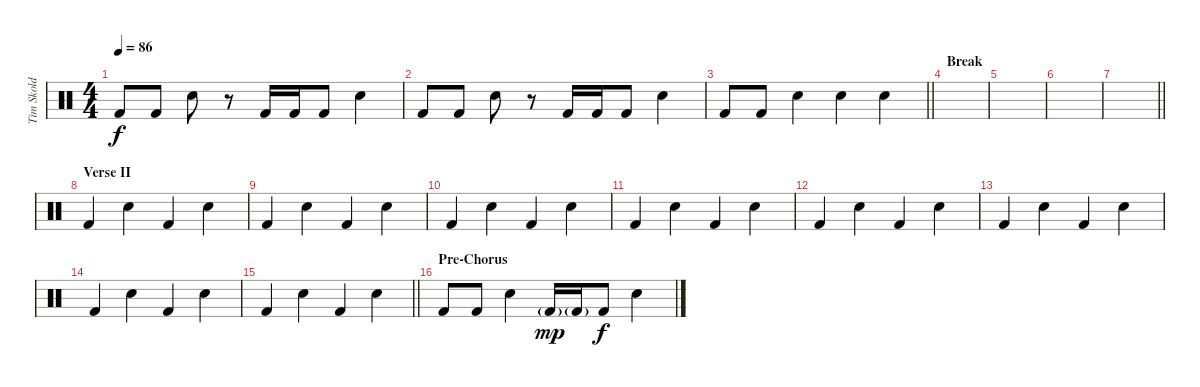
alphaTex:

\track ("Tim Skold V" "Tim Skold ") {instrument percussion}
\staff {score}
\articulation defaults
\ts (4 4)
\tempo 86
\clef neutral
\ks c "Kick (hit) 2".8{dy f} "Kick (hit) 2".8 "Electric Snare (hit)".8
r.8 "Kick (hit) 2".16 "Kick (hit) 2".16 "Kick (hit) 2".8 "Electric Snare (hit)".4 |
"Kick (hit) 2".8 "Kick (hit) 2".8 "Electric Snare (hit)".8 r.8 "Kick (hit) 2".16 "Kick (hit) 2".16 "Kick (hit) 2".8 "Electric Snare (hit)".4 |
\barLineRight lightlight "Kick (hit) 2".8 "Kick (hit) 2".8 "Electric Snare (hit)".4 "Electric Snare (hit)".4 "Electric Snare (hit)".4
|
\section ("" "Break")
|
|
|
\barLineRight lightlight
|
\section ("" "Verse II")
"Kick (hit) 2".4{volume 8} "Electric Snare (hit)".4 "Kick (hit) 2".4 "Electric Snare (hit)".4 |
"Kick (hit) 2".4 "Electric Snare (hit)".4 "Kick (hit) 2".4 "Electric Snare (hit)".4 |
"Kick (hit) 2".4 "Electric Snare (hit)".4 "Kick (hit) 2".4 "Electric Snare (hit)".4 |
"Kick (hit) 2".4 "Electric Snare (hit)".4 "Kick (hit) 2".4 "Electric Snare (hit)".4 |
"Kick (hit) 2".4 "Electric Snare (hit)".4 "Kick (hit) 2".4 "Electric Snare (hit)".4 |
"Kick (hit) 2".4 "Electric Snare (hit)".4 "Kick (hit) 2".4 "Electric Snare (hit)".4 |
"Kick (hit) 2".4 "Electric Snare (hit)".4 "Kick (hit) 2".4 "Electric Snare (hit)".4 |
\barLineRight lightlight "Kick (hit) 2".4 "Electric Snare (hit)".4 "Kick (hit) 2".4 "Electric Snare (hit)".4
|
\section ("" "Pre-Chorus")
"Kick (hit) 2".8 "Kick (hit) 2".8 "Electric Snare (hit)".4 "Kick (hit) 2"{g}.16{dy mp} "Kick (hit) 2"{g}.16 "Kick (hit) 2".8{dy f} "Electric Snare (hit)".4
